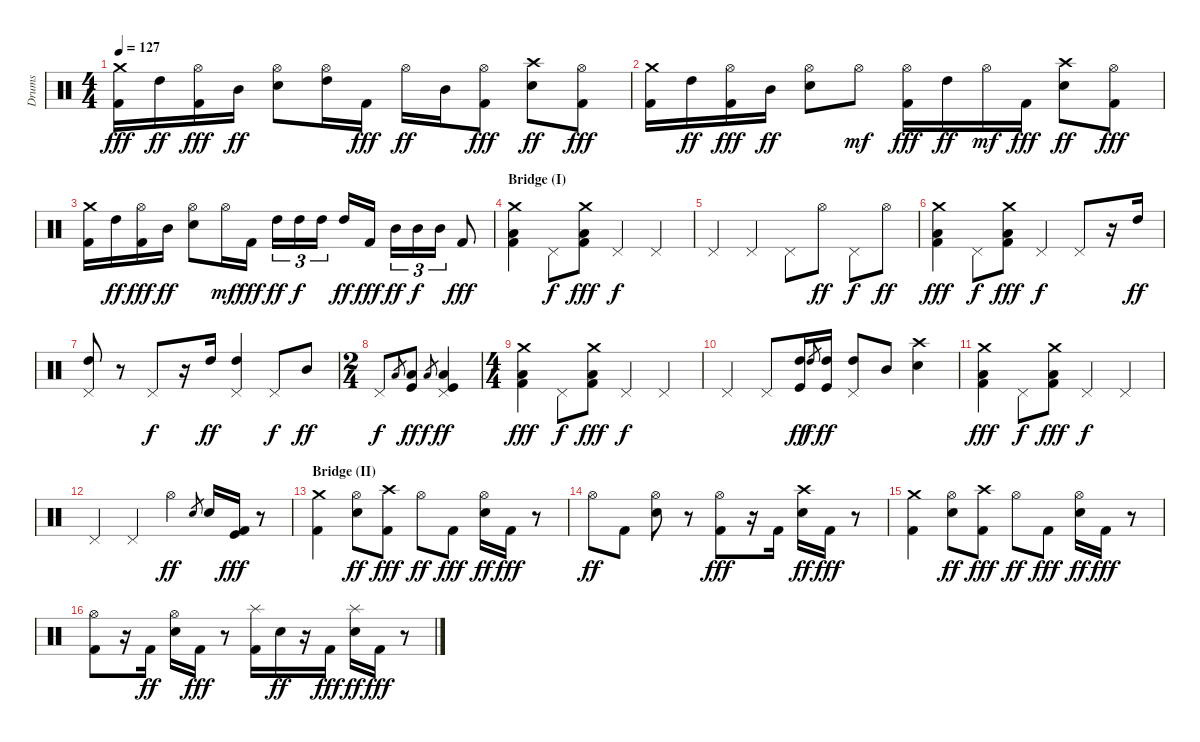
\track ("Drums" "Drums") {instrument percussion}
\staff {score}
\articulation defaults
\ts (4 4)
\tempo 127
\clef neutral
\ks c
("Crash medium (hit)" "Kick (hit) 2").16{dy fff} "High Tom (hit)".16{dy ff} ("Hi-Hat (open)" "Kick (hit) 2").16{dy fff} "Mid Tom (hit)".16{dy ff} ("Hi-Hat (open)" "Snare (hit) 2").8 ("Hi-Hat (open)" "High Tom (hit)").16 "Kick (hit) 2".16{dy fff} "Hi-Hat (open)".16{dy ff} "Mid Tom (hit)".16 ("Hi-Hat (open)" "Kick (hit) 2").8{dy fff} ("Crash high (hit)" "Snare (hit) 2").8{dy ff} ("Hi-Hat (open)" "Kick (hit) 2").8{dy fff} |
("Crash medium (hit)" "Kick (hit) 2").16 "High Tom (hit)".16{dy ff} ("Hi-Hat (open)" "Kick (hit) 2").16{dy fff} "Mid Tom (hit)".16{dy ff} ("Hi-Hat (open)" "Snare (hit) 2").8 "Hi-Hat (open)".8{dy mf} ("Hi-Hat (open)" "Kick (hit) 2").16{dy fff} "High Tom (hit)".16{dy ff} "Hi-Hat (open)".16{dy mf} "Kick (hit) 2".16{dy fff} ("Crash high (hit)" "Snare (hit) 2").8{dy ff} ("Hi-Hat (open)" "Kick (hit) 2").8{dy fff} |
("Crash medium (hit)" "Kick (hit) 2").16 "High Tom (hit)".16{dy ff} ("Hi-Hat (open)" "Kick (hit) 2").16{dy fff} "Mid Tom (hit)".16{dy ff} ("Hi-Hat (open)" "Snare (hit) 2").8 "Hi-Hat (open)".16{dy mf} "Kick (hit) 2".16{dy fff} "High Tom (hit)".16{tu (3 2) dy ff} "High Tom (hit)".16{tu (3 2) dy f} "High Tom (hit)".16{tu (3 2)} "High Tom (hit)".16{dy ff} "Kick (hit) 2".16{dy fff} "Mid Tom (hit)".16{tu (3 2) dy ff} "Mid Tom (hit)".16{tu (3 2) dy f} "Mid Tom (hit)".16{tu (3 2)} "Kick (hit) 2".8{dy fff} |
\section ("" "Bridge (I)")
("Crash medium (hit)" "Low Tom (hit)" "Kick (hit) 2").4 "Pedal Hi-Hat (hit)".8{dy f} ("Crash medium (hit)" "Low Tom (hit)" "Kick (hit) 2").8{dy fff} "Pedal Hi-Hat (hit)".4{dy f} "Pedal Hi-Hat (hit)".4 |
"Pedal Hi-Hat (hit)".4 "Pedal Hi-Hat (hit)".4 "Pedal Hi-Hat (hit)".8 "Hi-Hat (open)".8{dy ff} "Pedal Hi-Hat (hit)".8{dy f} "Hi-Hat (open)".8{dy ff} |
("Crash medium (hit)" "Low Tom (hit)" "Kick (hit) 2").4{dy fff} "Pedal Hi-Hat (hit)".8{dy f} ("Crash medium (hit)" "Low Tom (hit)" "Kick (hit) 2").8{dy fff} "Pedal Hi-Hat (hit)".4{dy f} "Pedal Hi-Hat (hit)".8 r.16 "High Tom (hit)".16{dy ff} |
("Pedal Hi-Hat (hit)" "High Tom (hit)").8 r.8 "Pedal Hi-Hat (hit)".8{dy f} r.16 "High Tom (hit)".16{dy ff} ("Pedal Hi-Hat (hit)" "High Tom (hit)").4 "Pedal Hi-Hat (hit)".8{dy f} "Mid Tom (hit)".8{dy ff} |
\ts (2 4)
"Pedal Hi-Hat (hit)".8{dy f} "Low Tom (hit)".8{gr} ("Low Tom (hit)" "Kick (hit)").8{dy ff} "Low Tom (hit)".8{gr dy f} ("Pedal Hi-Hat (hit)" "Low Tom (hit)" "Kick (hit)").4{dy ff} |
\ts (4 4)
("Crash medium (hit)" "Low Tom (hit)" "Kick (hit) 2").4{dy fff} "Pedal Hi-Hat (hit)".8{dy f} ("Crash medium (hit)" "Low Tom (hit)" "Kick (hit) 2").8{dy fff} "Pedal Hi-Hat (hit)".4{dy f} "Pedal Hi-Hat (hit)".4 |
"Pedal Hi-Hat (hit)".4 "Pedal Hi-Hat (hit)".8 ("High Tom (hit)" "Kick (hit)").16{dy ff} "High Tom (hit)".8{gr dy f} ("High Tom (hit)" "Kick (hit)").16{dy ff} ("Pedal Hi-Hat (hit)" "High Tom (hit)").8 "Mid Tom (hit)".8 ("Crash high (hit)" "Snare (hit) 2").4 |
("Crash medium (hit)" "Low Tom (hit)" "Kick (hit) 2").4{dy fff} "Pedal Hi-Hat (hit)".8{dy f} ("Crash medium (hit)" "Low Tom (hit)" "Kick (hit) 2").8{dy fff} "Pedal Hi-Hat (hit)".4{dy f} "Pedal Hi-Hat (hit)".4 |
"Pedal Hi-Hat (hit)".4 "Pedal Hi-Hat (hit)".4 "Hi-Hat (open)".4{dy ff} "Snare (hit) 2".8{gr} "Snare (hit) 2".16 ("Kick (hit)" "Kick (hit) 2").16{dy fff} r.8 |
\section ("" "Bridge (II)")
("Crash medium (hit)" "Kick (hit) 2").4 ("Hi-Hat (open)" "Snare (hit) 2").8{dy ff} ("Crash high (hit)" "Kick (hit) 2").8{dy fff} "Hi-Hat (open)".8{dy ff} "Kick (hit) 2".8{dy fff} ("Hi-Hat (open)" "Snare (hit) 2").16{dy ff} "Kick (hit) 2".16{dy fff} r.8 |
"Hi-Hat (open)".8{dy ff} "Kick (hit) 2".8 ("Hi-Hat (open)" "Snare (hit) 2").8 r.8 ("Hi-Hat (open)" "Kick (hit) 2").8{dy fff} r.16 "Kick (hit) 2".16 ("Crash high (hit)" "Snare (hit) 2").16{dy ff} "Kick (hit) 2".16{dy fff} r.8 |
("Crash medium (hit)" "Kick (hit) 2").4 ("Hi-Hat (open)" "Snare (hit) 2").8{dy ff} ("Crash high (hit)" "Kick (hit) 2").8{dy fff} "Hi-Hat (open)".8{dy ff} "Kick (hit) 2".8{dy fff} ("Hi-Hat (open)" "Snare (hit) 2").16{dy ff} "Kick (hit) 2".16{dy fff} r.8 |
("Hi-Hat (open)" "Kick (hit) 2").8 r.16 "Kick (hit) 2".16{dy ff} ("Hi-Hat (open)" "Snare (hit) 2").16 "Kick (hit) 2".16{dy fff} r.8 ("Splash (hit)" "Kick (hit) 2").16 "Snare (hit) 2".16{dy ff} r.16 "Kick (hit) 2".16{dy fff} ("Splash (hit)" "Snare (hit) 2").16{dy ff} "Kick (hit) 2".16{dy fff} r.8
